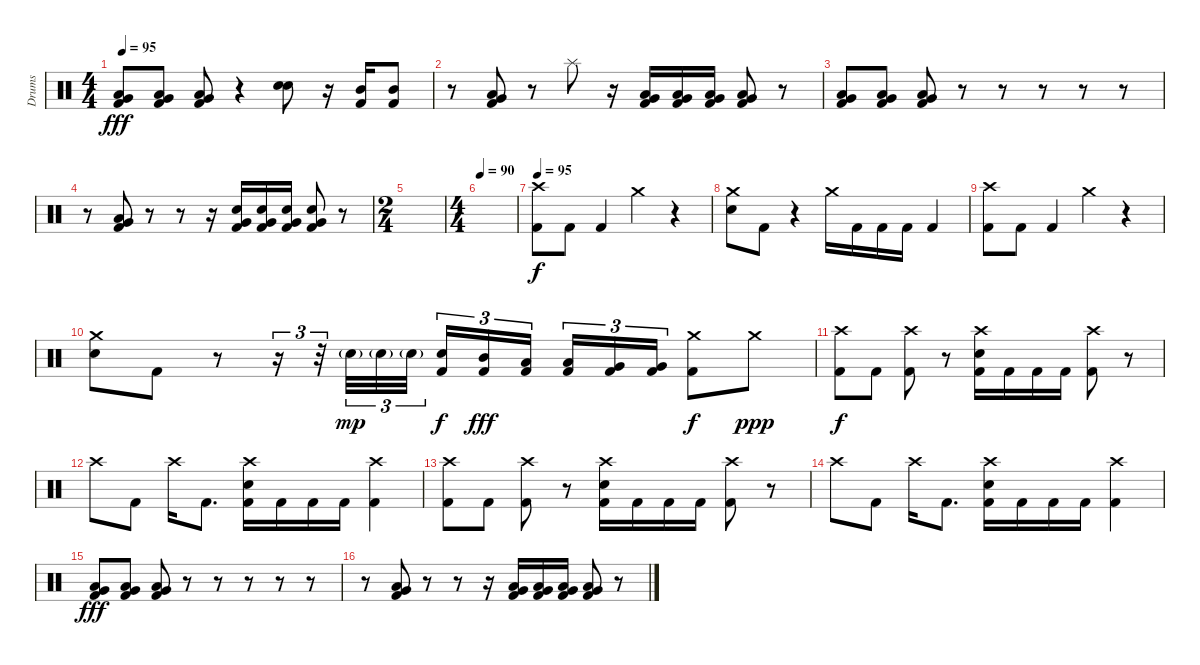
\track ("Drums" "Drums") {instrument percussion}
\staff {score}
\articulation defaults
\ts (4 4)
\tempo 95
\clef neutral
\ks c
("Low Floor Tom (hit)" "Very Low Tom (hit)" "Kick (hit) 2").8{dy fff} ("Low Floor Tom (hit)" "Very Low Tom (hit)" "Kick (hit) 2").8 ("Low Floor Tom (hit)" "Very Low Tom (hit)" "Kick (hit) 2").8 r.4 ("Electric Snare (hit)" "Electric Snare (hit)").8{bd 60} r.16 ("Mid Tom (hit)" "Kick (hit) 2").16 ("Mid Tom (hit)" "Kick (hit) 2").8 |
r.8 ("Low Floor Tom (hit)" "Very Low Tom (hit)" "Kick (hit) 2").8 r.8 "Splash (hit)".8 r.16 ("Low Floor Tom (hit)" "Very Low Tom (hit)" "Kick (hit) 2").16 ("Low Floor Tom (hit)" "Very Low Tom (hit)" "Kick (hit) 2").16 ("Low Floor Tom (hit)" "Very Low Tom (hit)" "Kick (hit) 2").16 ("Low Floor Tom (hit)" "Very Low Tom (hit)" "Kick (hit) 2").8 r.8 |
("Low Floor Tom (hit)" "Very Low Tom (hit)" "Kick (hit) 2").8 ("Low Floor Tom (hit)" "Very Low Tom (hit)" "Kick (hit) 2").8 ("Low Floor Tom (hit)" "Very Low Tom (hit)" "Kick (hit) 2").8 r.8 r.8 r.8 r.8 r.8 |
r.8 ("Low Floor Tom (hit)" "Very Low Tom (hit)" "Kick (hit) 2").8 r.8 r.8 r.16 ("Electric Snare (hit)" "Very Low Tom (hit)" "Kick (hit) 2").16 ("Electric Snare (hit)" "Very Low Tom (hit)" "Kick (hit) 2").16 ("Electric Snare (hit)" "Very Low Tom (hit)" "Kick (hit) 2").16 ("Electric Snare (hit)" "Very Low Tom (hit)" "Kick (hit) 2").8 r.8 |
\ts (2 4)
|
\ts (4 4)
\tempo 90
|
\tempo 95
("Crash high (hit)" "Kick (hit) 2").8{dy f} "Kick (hit) 2".8 "Kick (hit) 2".4 "Crash medium (hit)".4 r.4 |
("Crash medium (hit)" "Electric Snare (hit)").8 "Kick (hit) 2".8 r.4 "Crash medium (hit)".16 "Kick (hit) 2".16 "Kick (hit) 2".16 "Kick (hit) 2".16 "Kick (hit) 2".4 |
("Crash high (hit)" "Kick (hit) 2").8 "Kick (hit) 2".8 "Kick (hit) 2".4 "Crash medium (hit)".4 r.4 |
("Crash medium (hit)" "Electric Snare (hit)").8 "Kick (hit) 2".8 r.8 r.16{tu (3 2)} r.32{tu (3 2)} "Snare (hit) 2"{g}.32{tu (3 2) dy mp} "Snare (hit) 2"{g}.32{tu (3 2)} "Snare (hit) 2"{g}.32{tu (3 2)} ("Electric Snare (hit)" "Kick (hit) 2").16{tu (3 2) dy f} ("Mid Tom (hit)" "Kick (hit) 2").16{tu (3 2) dy fff} ("Low Tom (hit)" "Kick (hit) 2").16{tu (3 2) beam splitsecondary} ("Low Tom (hit)" "Kick (hit) 2").16{tu (3 2)} ("Very Low Tom (hit)" "Kick (hit) 2").16{tu (3 2)} ("Very Low Tom (hit)" "Kick (hit) 2").16{tu (3 2)} ("Crash medium (hit)" "Kick (hit) 2").8{dy f} "Crash medium (hit)".8{dy ppp} |
("Crash high (hit)" "Kick (hit) 2").8{dy f} "Kick (hit) 2".8 ("Crash high (hit)" "Kick (hit) 2").8 r.8 ("Crash high (hit)" "Electric Snare (hit)" "Kick (hit) 2").16 "Kick (hit) 2".16 "Kick (hit) 2".16 "Kick (hit) 2".16 ("Crash high (hit)" "Kick (hit) 2").8 r.8 |
"Crash high (hit)".8 "Kick (hit) 2".8 "Crash high (hit)".16 "Kick (hit) 2".8{d} ("Crash high (hit)" "Electric Snare (hit)" "Kick (hit) 2").16 "Kick (hit) 2".16 "Kick (hit) 2".16 "Kick (hit) 2".16 ("Crash high (hit)" "Kick (hit) 2").4 |
("Crash high (hit)" "Kick (hit) 2").8 "Kick (hit) 2".8 ("Crash high (hit)" "Kick (hit) 2").8 r.8 ("Crash high (hit)" "Electric Snare (hit)" "Kick (hit) 2").16 "Kick (hit) 2".16 "Kick (hit) 2".16 "Kick (hit) 2".16 ("Crash high (hit)" "Kick (hit) 2").8 r.8 |
"Crash high (hit)".8 "Kick (hit) 2".8 "Crash high (hit)".16 "Kick (hit) 2".8{d} ("Crash high (hit)" "Electric Snare (hit)" "Kick (hit) 2").16 "Kick (hit) 2".16 "Kick (hit) 2".16 "Kick (hit) 2".16 ("Crash high (hit)" "Kick (hit) 2").4 |
("Low Floor Tom (hit)" "Very Low Tom (hit)" "Kick (hit) 2").8{dy fff} ("Low Floor Tom (hit)" "Very Low Tom (hit)" "Kick (hit) 2").8 ("Low Floor Tom (hit)" "Very Low Tom (hit)" "Kick (hit) 2").8 r.8 r.8 r.8 r.8 r.8 |
r.8 ("Low Floor Tom (hit)" "Very Low Tom (hit)" "Kick (hit) 2").8 r.8 r.8 r.16 ("Low Floor Tom (hit)" "Very Low Tom (hit)" "Kick (hit) 2").16 ("Low Floor Tom (hit)" "Very Low Tom (hit)" "Kick (hit) 2").16 ("Low Floor Tom (hit)" "Very Low Tom (hit)" "Kick (hit) 2").16 ("Low Floor Tom (hit)" "Very Low Tom (hit)" "Kick (hit) 2").8 r.8
